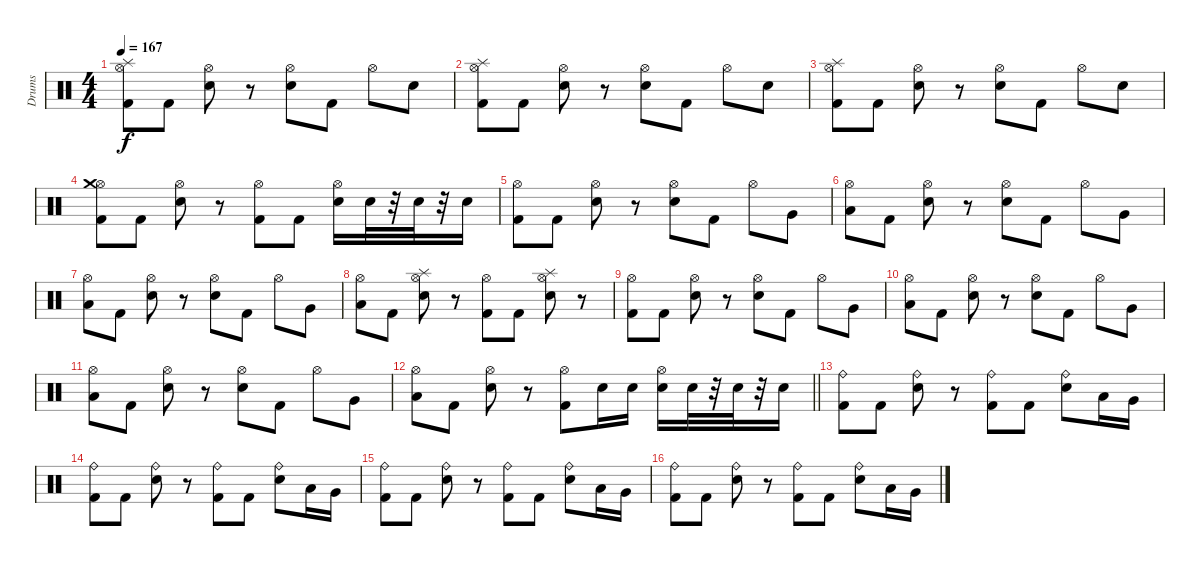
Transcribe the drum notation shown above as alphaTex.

\track ("Drums" "Drums") {instrument percussion}
\staff {score}
\articulation defaults
\ts (4 4)
\tempo 167
\clef neutral
\ks c
("Hi-Hat (open)" "Kick (hit) 2" "Splash (hit)").8{dy f} "Kick (hit) 2".8 ("Hi-Hat (open)" "Electric Snare (hit)").8 r.8 ("Hi-Hat (open)" "Electric Snare (hit)").8 "Kick (hit) 2".8 "Hi-Hat (open)".8 "Electric Snare (hit)".8 |
("Hi-Hat (open)" "Kick (hit) 2" "Splash (hit)").8 "Kick (hit) 2".8 ("Hi-Hat (open)" "Electric Snare (hit)").8 r.8 ("Hi-Hat (open)" "Electric Snare (hit)").8 "Kick (hit) 2".8 "Hi-Hat (open)".8 "Electric Snare (hit)".8 |
("Hi-Hat (open)" "Kick (hit) 2" "Splash (hit)").8 "Kick (hit) 2".8 ("Hi-Hat (open)" "Electric Snare (hit)").8 r.8 ("Hi-Hat (open)" "Electric Snare (hit)").8 "Kick (hit) 2".8 "Hi-Hat (open)".8 "Electric Snare (hit)".8 |
("Hi-Hat (open)" "Kick (hit) 2" "Crash medium (hit)").8 "Kick (hit) 2".8 ("Hi-Hat (open)" "Electric Snare (hit)").8 r.8 ("Hi-Hat (open)" "Kick (hit) 2").8 "Kick (hit) 2".8 ("Hi-Hat (open)" "Electric Snare (hit)").16 "Electric Snare (hit)".32 r.32 "Electric Snare (hit)".32 r.32 "Electric Snare (hit)".16 |
("Hi-Hat (open)" "Kick (hit) 2").8 "Kick (hit) 2".8 ("Hi-Hat (open)" "Electric Snare (hit)").8 r.8 ("Hi-Hat (open)" "Electric Snare (hit)").8 "Kick (hit) 2".8 "Hi-Hat (open)".8 "Very Low Tom (hit)".8 |
("Hi-Hat (open)" "Low Floor Tom (hit)").8 "Kick (hit) 2".8 ("Hi-Hat (open)" "Electric Snare (hit)").8 r.8 ("Hi-Hat (open)" "Electric Snare (hit)").8 "Kick (hit) 2".8 "Hi-Hat (open)".8 "Very Low Tom (hit)".8 |
("Hi-Hat (open)" "Low Floor Tom (hit)").8 "Kick (hit) 2".8 ("Hi-Hat (open)" "Electric Snare (hit)").8 r.8 ("Hi-Hat (open)" "Electric Snare (hit)").8 "Kick (hit) 2".8 "Hi-Hat (open)".8 "Very Low Tom (hit)".8 |
("Hi-Hat (open)" "Low Floor Tom (hit)").8 "Kick (hit) 2".8 ("Hi-Hat (open)" "Electric Snare (hit)" "Splash (hit)").8 r.8 ("Hi-Hat (open)" "Kick (hit) 2").8 "Kick (hit) 2".8 ("Hi-Hat (open)" "Electric Snare (hit)" "Splash (hit)").8 r.8 |
("Hi-Hat (open)" "Kick (hit) 2").8 "Kick (hit) 2".8 ("Hi-Hat (open)" "Electric Snare (hit)").8 r.8 ("Hi-Hat (open)" "Electric Snare (hit)").8 "Kick (hit) 2".8 "Hi-Hat (open)".8 "Very Low Tom (hit)".8 |
("Hi-Hat (open)" "Low Floor Tom (hit)").8 "Kick (hit) 2".8 ("Hi-Hat (open)" "Electric Snare (hit)").8 r.8 ("Hi-Hat (open)" "Electric Snare (hit)").8 "Kick (hit) 2".8 "Hi-Hat (open)".8 "Very Low Tom (hit)".8 |
("Hi-Hat (open)" "Low Floor Tom (hit)").8 "Kick (hit) 2".8 ("Hi-Hat (open)" "Electric Snare (hit)").8 r.8 ("Hi-Hat (open)" "Electric Snare (hit)").8 "Kick (hit) 2".8 "Hi-Hat (open)".8 "Very Low Tom (hit)".8 |
\barLineRight lightlight
("Hi-Hat (open)" "Low Floor Tom (hit)").8 "Kick (hit) 2".8 ("Hi-Hat (open)" "Electric Snare (hit)").8 r.8 ("Hi-Hat (open)" "Kick (hit) 2").8 "Electric Snare (hit)".16 "Electric Snare (hit)".16 ("Hi-Hat (open)" "Electric Snare (hit)").16 "Electric Snare (hit)".32 r.32 "Electric Snare (hit)".32 r.32 "Electric Snare (hit)".16 |
("Ride (bell)" "Kick (hit) 2").8 "Kick (hit) 2".8 ("Ride (bell)" "Electric Snare (hit)").8 r.8 ("Ride (bell)" "Kick (hit) 2").8 "Kick (hit) 2".8 ("Ride (bell)" "Electric Snare (hit)").8 "Low Tom (hit)".16 "Very Low Tom (hit)".16 |
("Ride (bell)" "Kick (hit) 2").8 "Kick (hit) 2".8 ("Ride (bell)" "Electric Snare (hit)").8 r.8 ("Ride (bell)" "Kick (hit) 2").8 "Kick (hit) 2".8 ("Ride (bell)" "Electric Snare (hit)").8 "Low Tom (hit)".16 "Very Low Tom (hit)".16 |
("Ride (bell)" "Kick (hit) 2").8 "Kick (hit) 2".8 ("Ride (bell)" "Electric Snare (hit)").8 r.8 ("Ride (bell)" "Kick (hit) 2").8 "Kick (hit) 2".8 ("Ride (bell)" "Electric Snare (hit)").8 "Low Tom (hit)".16 "Very Low Tom (hit)".16 |
("Ride (bell)" "Kick (hit) 2").8 "Kick (hit) 2".8 ("Ride (bell)" "Electric Snare (hit)").8 r.8 ("Ride (bell)" "Kick (hit) 2").8 "Kick (hit) 2".8 ("Ride (bell)" "Electric Snare (hit)").8 "Low Tom (hit)".16 "Very Low Tom (hit)".16
